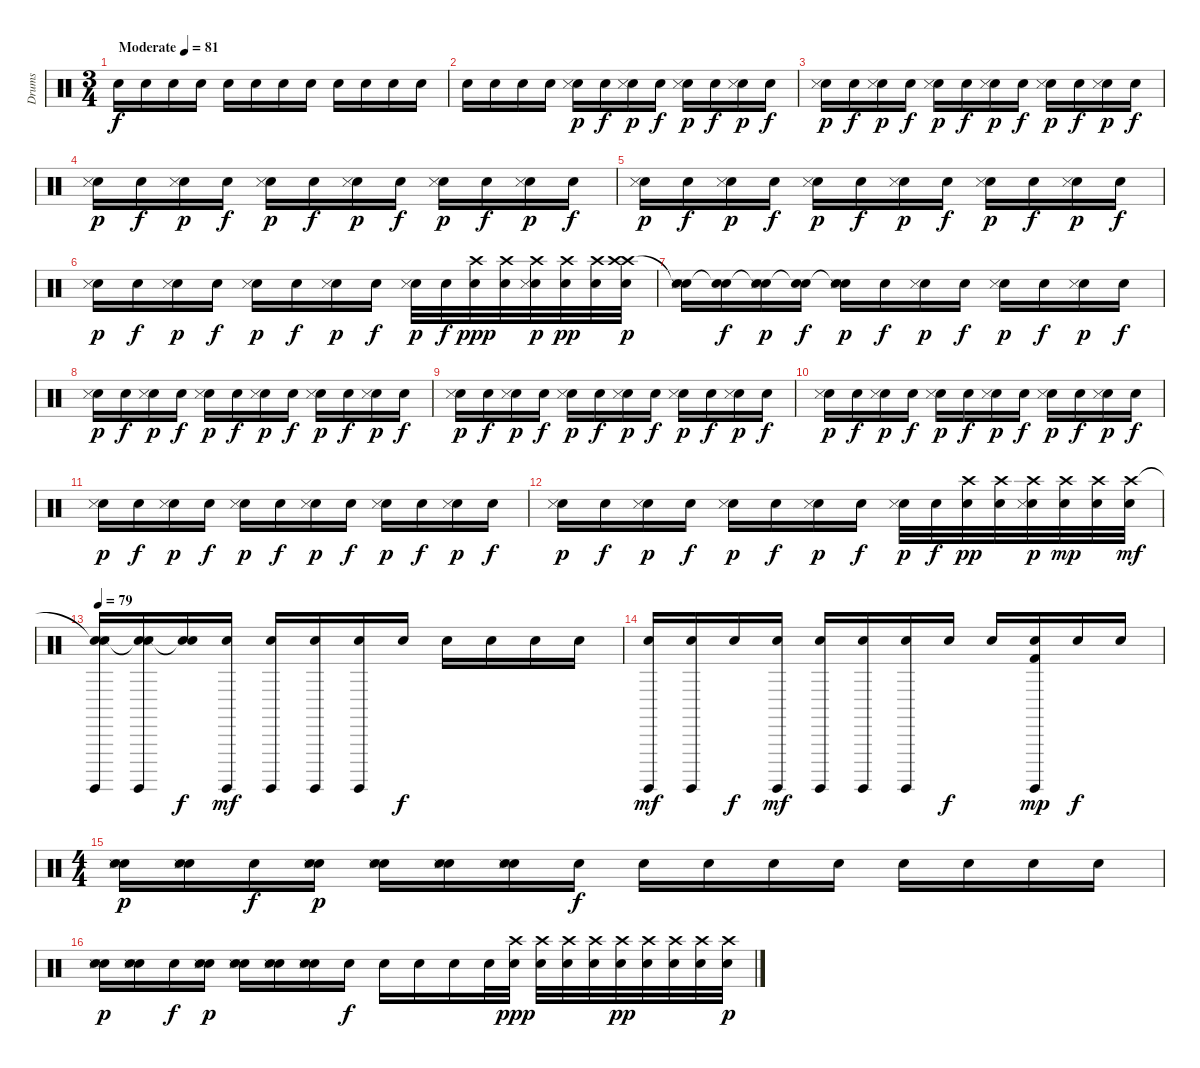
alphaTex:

\track ("Drums" "Drums") {instrument percussion}
\staff {score}
\articulation defaults
\ts (3 4)
\tempo (81 "Moderate")
\clef neutral
\ks c "Snare (hit)".16{dy f} "Snare (hit)".16 "Snare (hit)".16 "Snare (hit)".16 "Snare (hit)".16 "Snare (hit)".16 "Snare (hit)".16 "Snare (hit)".16 "Snare (hit)".16 "Snare (hit)".16 "Snare (hit)".16 "Snare (hit)".16
|
"Snare (hit)".16 "Snare (hit)".16 "Snare (hit)".16 "Snare (hit)".16 ("Snare (hit)" "Metronome (hit)").16{dy p} "Snare (hit)".16{dy f} ("Snare (hit)" "Metronome (hit)").16{dy p} "Snare (hit)".16{dy f} ("Snare (hit)" "Metronome (hit)").16{dy p} "Snare (hit)".16{dy f} ("Snare (hit)" "Metronome (hit)").16{dy p} "Snare (hit)".16{dy f} |
("Snare (hit)" "Metronome (hit)").16{dy p} "Snare (hit)".16{dy f} ("Snare (hit)" "Metronome (hit)").16{dy p} "Snare (hit)".16{dy f} ("Snare (hit)" "Metronome (hit)").16{dy p} "Snare (hit)".16{dy f} ("Snare (hit)" "Metronome (hit)").16{dy p} "Snare (hit)".16{dy f} ("Snare (hit)" "Metronome (hit)").16{dy p} "Snare (hit)".16{dy f} ("Snare (hit)" "Metronome (hit)").16{dy p} "Snare (hit)".16{dy f} |
("Snare (hit)" "Metronome (hit)").16{dy p} "Snare (hit)".16{dy f} ("Snare (hit)" "Metronome (hit)").16{dy p} "Snare (hit)".16{dy f} ("Snare (hit)" "Metronome (hit)").16{dy p} "Snare (hit)".16{dy f} ("Snare (hit)" "Metronome (hit)").16{dy p} "Snare (hit)".16{dy f} ("Snare (hit)" "Metronome (hit)").16{dy p} "Snare (hit)".16{dy f} ("Snare (hit)" "Metronome (hit)").16{dy p} "Snare (hit)".16{dy f} |
("Snare (hit)" "Metronome (hit)").16{dy p} "Snare (hit)".16{dy f} ("Snare (hit)" "Metronome (hit)").16{dy p} "Snare (hit)".16{dy f} ("Snare (hit)" "Metronome (hit)").16{dy p} "Snare (hit)".16{dy f} ("Snare (hit)" "Metronome (hit)").16{dy p} "Snare (hit)".16{dy f} ("Snare (hit)" "Metronome (hit)").16{dy p} "Snare (hit)".16{dy f} ("Snare (hit)" "Metronome (hit)").16{dy p} "Snare (hit)".16{dy f} |
("Snare (hit)" "Metronome (hit)").16{dy p} "Snare (hit)".16{dy f} ("Snare (hit)" "Metronome (hit)").16{dy p} "Snare (hit)".16{dy f} ("Snare (hit)" "Metronome (hit)").16{dy p} "Snare (hit)".16{dy f} ("Snare (hit)" "Metronome (hit)").16{dy p} "Snare (hit)".16{dy f} ("Snare (hit)" "Metronome (hit)").32{dy p} "Snare (hit)".32{dy f} ("Snare (hit)" "Crash high (hit)").32{dy ppp} ("Snare (hit)" "Crash high (hit)").32 ("Snare (hit)" "Crash high (hit)" "Metronome (hit)").32{dy p} ("Snare (hit)" "Crash high (hit)").32{dy pp} ("Snare (hit)" "Crash high (hit)").32 ("Snare (hit)" "Crash high (hit)" "Crash high (hit)").32{dy p} |
("Snare (hit)" "Snare (hit)"{t} "Metronome (hit)").16 ("Snare (hit)" "Snare (hit)"{t}).16{dy f} ("Snare (hit)" "Snare (hit)"{t} "Metronome (hit)").16{dy p} ("Snare (hit)" "Snare (hit)"{t}).16{dy f} ("Snare (hit)" "Snare (hit)"{t} "Metronome (hit)").16{dy p} "Snare (hit)".16{dy f} ("Snare (hit)" "Metronome (hit)").16{dy p} "Snare (hit)".16{dy f} ("Snare (hit)" "Metronome (hit)").16{dy p} "Snare (hit)".16{dy f} ("Snare (hit)" "Metronome (hit)").16{dy p} "Snare (hit)".16{dy f} |
("Snare (hit)" "Metronome (hit)").16{dy p} "Snare (hit)".16{dy f} ("Snare (hit)" "Metronome (hit)").16{dy p} "Snare (hit)".16{dy f} ("Snare (hit)" "Metronome (hit)").16{dy p} "Snare (hit)".16{dy f} ("Snare (hit)" "Metronome (hit)").16{dy p} "Snare (hit)".16{dy f} ("Snare (hit)" "Metronome (hit)").16{dy p} "Snare (hit)".16{dy f} ("Snare (hit)" "Metronome (hit)").16{dy p} "Snare (hit)".16{dy f} |
("Snare (hit)" "Metronome (hit)").16{dy p} "Snare (hit)".16{dy f} ("Snare (hit)" "Metronome (hit)").16{dy p} "Snare (hit)".16{dy f} ("Snare (hit)" "Metronome (hit)").16{dy p} "Snare (hit)".16{dy f} ("Snare (hit)" "Metronome (hit)").16{dy p} "Snare (hit)".16{dy f} ("Snare (hit)" "Metronome (hit)").16{dy p} "Snare (hit)".16{dy f} ("Snare (hit)" "Metronome (hit)").16{dy p} "Snare (hit)".16{dy f} |
("Snare (hit)" "Metronome (hit)").16{dy p} "Snare (hit)".16{dy f} ("Snare (hit)" "Metronome (hit)").16{dy p} "Snare (hit)".16{dy f} ("Snare (hit)" "Metronome (hit)").16{dy p} "Snare (hit)".16{dy f} ("Snare (hit)" "Metronome (hit)").16{dy p} "Snare (hit)".16{dy f} ("Snare (hit)" "Metronome (hit)").16{dy p} "Snare (hit)".16{dy f} ("Snare (hit)" "Metronome (hit)").16{dy p} "Snare (hit)".16{dy f} |
("Snare (hit)" "Metronome (hit)").16{dy p} "Snare (hit)".16{dy f} ("Snare (hit)" "Metronome (hit)").16{dy p} "Snare (hit)".16{dy f} ("Snare (hit)" "Metronome (hit)").16{dy p} "Snare (hit)".16{dy f} ("Snare (hit)" "Metronome (hit)").16{dy p} "Snare (hit)".16{dy f} ("Snare (hit)" "Metronome (hit)").16{dy p} "Snare (hit)".16{dy f} ("Snare (hit)" "Metronome (hit)").16{dy p} "Snare (hit)".16{dy f} |
("Snare (hit)" "Metronome (hit)").16{dy p} "Snare (hit)".16{dy f} ("Snare (hit)" "Metronome (hit)").16{dy p} "Snare (hit)".16{dy f} ("Snare (hit)" "Metronome (hit)").16{dy p} "Snare (hit)".16{dy f} ("Snare (hit)" "Metronome (hit)").16{dy p} "Snare (hit)".16{dy f} ("Snare (hit)" "Metronome (hit)").32{dy p} "Snare (hit)".32{dy f} ("Snare (hit)" "Crash high (hit)").32{dy pp} ("Snare (hit)" "Crash high (hit)").32 ("Snare (hit)" "Crash high (hit)" "Metronome (hit)").32{dy p} ("Snare (hit)" "Crash high (hit)").32{dy mp} ("Snare (hit)" "Crash high (hit)").32 ("Snare (hit)" "Crash high (hit)").32{dy mf} |
\tempo 79
("Snare (hit)" "Snare (hit)"{t} "Metronome (hit)" "Surdo (hit)").16 ("Snare (hit)" "Snare (hit)"{t} "Metronome (hit)" "Surdo (hit)").16 ("Snare (hit)" "Snare (hit)"{t}).16{dy f} ("Snare (hit)" "Surdo (hit)").16{dy mf} ("Snare (hit)" "Surdo (hit)").16 ("Snare (hit)" "Surdo (hit)").16 ("Snare (hit)" "Surdo (hit)").16 "Snare (hit)".16{dy f} "Snare (hit)".16 "Snare (hit)".16 "Snare (hit)".16 "Snare (hit)".16 |
("Snare (hit)" "Surdo (hit)").16{dy mf} ("Snare (hit)" "Surdo (hit)").16 "Snare (hit)".16{dy f} ("Snare (hit)" "Surdo (hit)").16{dy mf} ("Snare (hit)" "Surdo (hit)").16 ("Snare (hit)" "Surdo (hit)").16 ("Snare (hit)" "Surdo (hit)").16 "Snare (hit)".16{dy f} "Snare (hit)".16 ("Snare (hit)" "Surdo (hit)" "Kick (hit) 2").16{dy mp} "Snare (hit)".16{dy f} "Snare (hit)".16 |
\ts (4 4)
("Snare (hit)" "Metronome (hit)" "Electric Snare (hit)").16{dy p} ("Snare (hit)" "Metronome (hit)" "Electric Snare (hit)").16 "Snare (hit)".16{dy f} ("Snare (hit)" "Metronome (hit)" "Electric Snare (hit)").16{dy p} ("Snare (hit)" "Metronome (hit)" "Electric Snare (hit)").16 ("Snare (hit)" "Metronome (hit)" "Electric Snare (hit)").16 ("Snare (hit)" "Metronome (hit)" "Electric Snare (hit)").16 "Snare (hit)".16{dy f} "Snare (hit)".16 "Snare (hit)".16 "Snare (hit)".16 "Snare (hit)".16 "Snare (hit)".16 "Snare (hit)".16 "Snare (hit)".16 "Snare (hit)".16 |
("Snare (hit)" "Metronome (hit)" "Electric Snare (hit)").16{dy p} ("Snare (hit)" "Metronome (hit)" "Electric Snare (hit)").16 "Snare (hit)".16{dy f} ("Snare (hit)" "Metronome (hit)" "Electric Snare (hit)").16{dy p} ("Snare (hit)" "Metronome (hit)" "Electric Snare (hit)").16 ("Snare (hit)" "Metronome (hit)" "Electric Snare (hit)").16 ("Snare (hit)" "Metronome (hit)" "Electric Snare (hit)").16 "Snare (hit)".16{dy f} "Snare (hit)".16 "Snare (hit)".16 "Snare (hit)".16 "Snare (hit)".32 ("Snare (hit)" "Crash high (hit)").32{dy ppp} ("Snare (hit)" "Crash high (hit)").32 ("Snare (hit)" "Crash high (hit)").32 ("Snare (hit)" "Crash high (hit)").32 ("Snare (hit)" "Crash high (hit)").32{dy pp} ("Snare (hit)" "Crash high (hit)").32 ("Snare (hit)" "Crash high (hit)").32 ("Snare (hit)" "Crash high (hit)").32 ("Snare (hit)" "Crash high (hit)").32{dy p}
